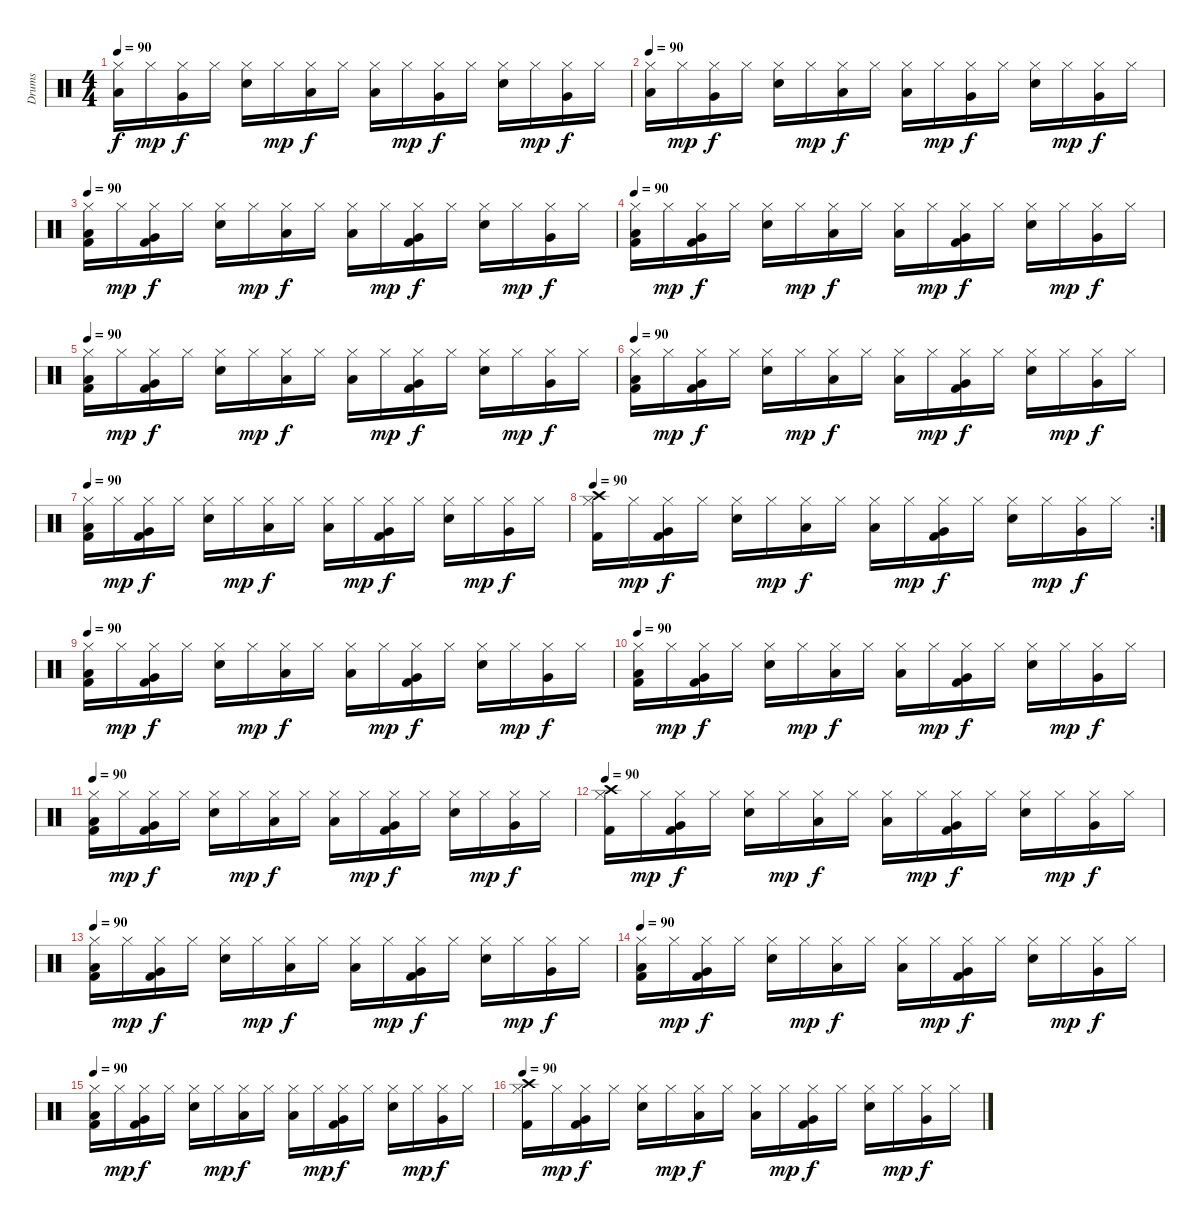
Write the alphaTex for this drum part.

\track ("Drums" "Drums") {instrument percussion}
\staff {score}
\articulation defaults
\ts (4 4)
\tempo 90
\clef neutral
\ks c
("Low Floor Tom (hit)" "Hi-Hat (closed)").16{dy f} "Hi-Hat (closed)".16{dy mp} ("Very Low Tom (hit)" "Hi-Hat (closed)").16{dy f} "Hi-Hat (closed)".16 ("Snare (hit) 2" "Hi-Hat (closed)").16 "Hi-Hat (closed)".16{dy mp} ("Low Tom (hit)" "Hi-Hat (closed)").16{dy f} "Hi-Hat (closed)".16 ("Low Tom (hit)" "Hi-Hat (closed)").16 "Hi-Hat (closed)".16{dy mp} ("Very Low Tom (hit)" "Hi-Hat (closed)").16{dy f} "Hi-Hat (closed)".16 ("Snare (hit) 2" "Hi-Hat (closed)").16 "Hi-Hat (closed)".16{dy mp} ("Very Low Tom (hit)" "Hi-Hat (closed)").16{dy f} "Hi-Hat (closed)".16 |
\tempo 90
("Low Floor Tom (hit)" "Hi-Hat (closed)").16 "Hi-Hat (closed)".16{dy mp} ("Very Low Tom (hit)" "Hi-Hat (closed)").16{dy f} "Hi-Hat (closed)".16 ("Snare (hit) 2" "Hi-Hat (closed)").16 "Hi-Hat (closed)".16{dy mp} ("Low Tom (hit)" "Hi-Hat (closed)").16{dy f} "Hi-Hat (closed)".16 ("Low Tom (hit)" "Hi-Hat (closed)").16 "Hi-Hat (closed)".16{dy mp} ("Very Low Tom (hit)" "Hi-Hat (closed)").16{dy f} "Hi-Hat (closed)".16 ("Snare (hit) 2" "Hi-Hat (closed)").16 "Hi-Hat (closed)".16{dy mp} ("Very Low Tom (hit)" "Hi-Hat (closed)").16{dy f} "Hi-Hat (closed)".16 |
\tempo 90
("Low Floor Tom (hit)" "Kick (hit) 2" "Hi-Hat (closed)").16 "Hi-Hat (closed)".16{dy mp} ("Very Low Tom (hit)" "Kick (hit) 2" "Hi-Hat (closed)").16{dy f} "Hi-Hat (closed)".16 ("Snare (hit) 2" "Hi-Hat (closed)").16 "Hi-Hat (closed)".16{dy mp} ("Low Tom (hit)" "Hi-Hat (closed)").16{dy f} "Hi-Hat (closed)".16 ("Low Tom (hit)" "Hi-Hat (closed)").16 "Hi-Hat (closed)".16{dy mp} ("Very Low Tom (hit)" "Kick (hit) 2" "Hi-Hat (closed)").16{dy f} "Hi-Hat (closed)".16 ("Snare (hit) 2" "Hi-Hat (closed)").16 "Hi-Hat (closed)".16{dy mp} ("Very Low Tom (hit)" "Hi-Hat (closed)").16{dy f} "Hi-Hat (closed)".16 |
\tempo 90
("Low Floor Tom (hit)" "Kick (hit) 2" "Hi-Hat (closed)").16 "Hi-Hat (closed)".16{dy mp} ("Very Low Tom (hit)" "Kick (hit) 2" "Hi-Hat (closed)").16{dy f} "Hi-Hat (closed)".16 ("Snare (hit) 2" "Hi-Hat (closed)").16 "Hi-Hat (closed)".16{dy mp} ("Low Tom (hit)" "Hi-Hat (closed)").16{dy f} "Hi-Hat (closed)".16 ("Low Tom (hit)" "Hi-Hat (closed)").16 "Hi-Hat (closed)".16{dy mp} ("Very Low Tom (hit)" "Kick (hit) 2" "Hi-Hat (closed)").16{dy f} "Hi-Hat (closed)".16 ("Snare (hit) 2" "Hi-Hat (closed)").16 "Hi-Hat (closed)".16{dy mp} ("Very Low Tom (hit)" "Hi-Hat (closed)").16{dy f} "Hi-Hat (closed)".16 |
\tempo 90
("Low Floor Tom (hit)" "Kick (hit) 2" "Hi-Hat (closed)").16 "Hi-Hat (closed)".16{dy mp} ("Very Low Tom (hit)" "Kick (hit) 2" "Hi-Hat (closed)").16{dy f} "Hi-Hat (closed)".16 ("Snare (hit) 2" "Hi-Hat (closed)").16 "Hi-Hat (closed)".16{dy mp} ("Low Tom (hit)" "Hi-Hat (closed)").16{dy f} "Hi-Hat (closed)".16 ("Low Tom (hit)" "Hi-Hat (closed)").16 "Hi-Hat (closed)".16{dy mp} ("Very Low Tom (hit)" "Kick (hit) 2" "Hi-Hat (closed)").16{dy f} "Hi-Hat (closed)".16 ("Snare (hit) 2" "Hi-Hat (closed)").16 "Hi-Hat (closed)".16{dy mp} ("Very Low Tom (hit)" "Hi-Hat (closed)").16{dy f} "Hi-Hat (closed)".16 |
\tempo 90
("Low Floor Tom (hit)" "Kick (hit) 2" "Hi-Hat (closed)").16 "Hi-Hat (closed)".16{dy mp} ("Very Low Tom (hit)" "Kick (hit) 2" "Hi-Hat (closed)").16{dy f} "Hi-Hat (closed)".16 ("Snare (hit) 2" "Hi-Hat (closed)").16 "Hi-Hat (closed)".16{dy mp} ("Low Tom (hit)" "Hi-Hat (closed)").16{dy f} "Hi-Hat (closed)".16 ("Low Tom (hit)" "Hi-Hat (closed)").16 "Hi-Hat (closed)".16{dy mp} ("Very Low Tom (hit)" "Kick (hit) 2" "Hi-Hat (closed)").16{dy f} "Hi-Hat (closed)".16 ("Snare (hit) 2" "Hi-Hat (closed)").16 "Hi-Hat (closed)".16{dy mp} ("Very Low Tom (hit)" "Hi-Hat (closed)").16{dy f} "Hi-Hat (closed)".16 |
\tempo 90
("Low Floor Tom (hit)" "Kick (hit) 2" "Hi-Hat (closed)").16 "Hi-Hat (closed)".16{dy mp} ("Very Low Tom (hit)" "Kick (hit) 2" "Hi-Hat (closed)").16{dy f} "Hi-Hat (closed)".16 ("Snare (hit) 2" "Hi-Hat (closed)").16 "Hi-Hat (closed)".16{dy mp} ("Low Tom (hit)" "Hi-Hat (closed)").16{dy f} "Hi-Hat (closed)".16 ("Low Tom (hit)" "Hi-Hat (closed)").16 "Hi-Hat (closed)".16{dy mp} ("Very Low Tom (hit)" "Kick (hit) 2" "Hi-Hat (closed)").16{dy f} "Hi-Hat (closed)".16 ("Snare (hit) 2" "Hi-Hat (closed)").16 "Hi-Hat (closed)".16{dy mp} ("Very Low Tom (hit)" "Hi-Hat (closed)").16{dy f} "Hi-Hat (closed)".16 |
\rc 2
\tempo 90
("Crash high (hit)" "Kick (hit) 2" "Hi-Hat (closed)").16 "Hi-Hat (closed)".16{dy mp} ("Very Low Tom (hit)" "Kick (hit) 2" "Hi-Hat (closed)").16{dy f} "Hi-Hat (closed)".16 ("Snare (hit) 2" "Hi-Hat (closed)").16 "Hi-Hat (closed)".16{dy mp} ("Low Tom (hit)" "Hi-Hat (closed)").16{dy f} "Hi-Hat (closed)".16 ("Low Tom (hit)" "Hi-Hat (closed)").16 "Hi-Hat (closed)".16{dy mp} ("Very Low Tom (hit)" "Kick (hit) 2" "Hi-Hat (closed)").16{dy f} "Hi-Hat (closed)".16 ("Snare (hit) 2" "Hi-Hat (closed)").16 "Hi-Hat (closed)".16{dy mp} ("Very Low Tom (hit)" "Hi-Hat (closed)").16{dy f} "Hi-Hat (closed)".16 |
\tempo 90
("Low Floor Tom (hit)" "Kick (hit) 2" "Hi-Hat (closed)").16 "Hi-Hat (closed)".16{dy mp} ("Very Low Tom (hit)" "Kick (hit) 2" "Hi-Hat (closed)").16{dy f} "Hi-Hat (closed)".16 ("Snare (hit) 2" "Hi-Hat (closed)").16 "Hi-Hat (closed)".16{dy mp} ("Low Tom (hit)" "Hi-Hat (closed)").16{dy f} "Hi-Hat (closed)".16 ("Low Tom (hit)" "Hi-Hat (closed)").16 "Hi-Hat (closed)".16{dy mp} ("Very Low Tom (hit)" "Kick (hit) 2" "Hi-Hat (closed)").16{dy f} "Hi-Hat (closed)".16 ("Snare (hit) 2" "Hi-Hat (closed)").16 "Hi-Hat (closed)".16{dy mp} ("Very Low Tom (hit)" "Hi-Hat (closed)").16{dy f} "Hi-Hat (closed)".16 |
\tempo 90
("Low Floor Tom (hit)" "Kick (hit) 2" "Hi-Hat (closed)").16 "Hi-Hat (closed)".16{dy mp} ("Very Low Tom (hit)" "Kick (hit) 2" "Hi-Hat (closed)").16{dy f} "Hi-Hat (closed)".16 ("Snare (hit) 2" "Hi-Hat (closed)").16 "Hi-Hat (closed)".16{dy mp} ("Low Tom (hit)" "Hi-Hat (closed)").16{dy f} "Hi-Hat (closed)".16 ("Low Tom (hit)" "Hi-Hat (closed)").16 "Hi-Hat (closed)".16{dy mp} ("Very Low Tom (hit)" "Kick (hit) 2" "Hi-Hat (closed)").16{dy f} "Hi-Hat (closed)".16 ("Snare (hit) 2" "Hi-Hat (closed)").16 "Hi-Hat (closed)".16{dy mp} ("Very Low Tom (hit)" "Hi-Hat (closed)").16{dy f} "Hi-Hat (closed)".16 |
\tempo 90
("Low Floor Tom (hit)" "Kick (hit) 2" "Hi-Hat (closed)").16 "Hi-Hat (closed)".16{dy mp} ("Very Low Tom (hit)" "Kick (hit) 2" "Hi-Hat (closed)").16{dy f} "Hi-Hat (closed)".16 ("Snare (hit) 2" "Hi-Hat (closed)").16 "Hi-Hat (closed)".16{dy mp} ("Low Tom (hit)" "Hi-Hat (closed)").16{dy f} "Hi-Hat (closed)".16 ("Low Tom (hit)" "Hi-Hat (closed)").16 "Hi-Hat (closed)".16{dy mp} ("Very Low Tom (hit)" "Kick (hit) 2" "Hi-Hat (closed)").16{dy f} "Hi-Hat (closed)".16 ("Snare (hit) 2" "Hi-Hat (closed)").16 "Hi-Hat (closed)".16{dy mp} ("Very Low Tom (hit)" "Hi-Hat (closed)").16{dy f} "Hi-Hat (closed)".16 |
\tempo 90
("Crash high (hit)" "Kick (hit) 2" "Hi-Hat (closed)").16 "Hi-Hat (closed)".16{dy mp} ("Very Low Tom (hit)" "Kick (hit) 2" "Hi-Hat (closed)").16{dy f} "Hi-Hat (closed)".16 ("Snare (hit) 2" "Hi-Hat (closed)").16 "Hi-Hat (closed)".16{dy mp} ("Low Tom (hit)" "Hi-Hat (closed)").16{dy f} "Hi-Hat (closed)".16 ("Low Tom (hit)" "Hi-Hat (closed)").16 "Hi-Hat (closed)".16{dy mp} ("Very Low Tom (hit)" "Kick (hit) 2" "Hi-Hat (closed)").16{dy f} "Hi-Hat (closed)".16 ("Snare (hit) 2" "Hi-Hat (closed)").16 "Hi-Hat (closed)".16{dy mp} ("Very Low Tom (hit)" "Hi-Hat (closed)").16{dy f} "Hi-Hat (closed)".16 |
\tempo 90
("Low Floor Tom (hit)" "Kick (hit) 2" "Hi-Hat (closed)").16 "Hi-Hat (closed)".16{dy mp} ("Very Low Tom (hit)" "Kick (hit) 2" "Hi-Hat (closed)").16{dy f} "Hi-Hat (closed)".16 ("Snare (hit) 2" "Hi-Hat (closed)").16 "Hi-Hat (closed)".16{dy mp} ("Low Tom (hit)" "Hi-Hat (closed)").16{dy f} "Hi-Hat (closed)".16 ("Low Tom (hit)" "Hi-Hat (closed)").16 "Hi-Hat (closed)".16{dy mp} ("Very Low Tom (hit)" "Kick (hit) 2" "Hi-Hat (closed)").16{dy f} "Hi-Hat (closed)".16 ("Snare (hit) 2" "Hi-Hat (closed)").16 "Hi-Hat (closed)".16{dy mp} ("Very Low Tom (hit)" "Hi-Hat (closed)").16{dy f} "Hi-Hat (closed)".16 |
\tempo 90
("Low Floor Tom (hit)" "Kick (hit) 2" "Hi-Hat (closed)").16 "Hi-Hat (closed)".16{dy mp} ("Very Low Tom (hit)" "Kick (hit) 2" "Hi-Hat (closed)").16{dy f} "Hi-Hat (closed)".16 ("Snare (hit) 2" "Hi-Hat (closed)").16 "Hi-Hat (closed)".16{dy mp} ("Low Tom (hit)" "Hi-Hat (closed)").16{dy f} "Hi-Hat (closed)".16 ("Low Tom (hit)" "Hi-Hat (closed)").16 "Hi-Hat (closed)".16{dy mp} ("Very Low Tom (hit)" "Kick (hit) 2" "Hi-Hat (closed)").16{dy f} "Hi-Hat (closed)".16 ("Snare (hit) 2" "Hi-Hat (closed)").16 "Hi-Hat (closed)".16{dy mp} ("Very Low Tom (hit)" "Hi-Hat (closed)").16{dy f} "Hi-Hat (closed)".16 |
\tempo 90
("Low Floor Tom (hit)" "Kick (hit) 2" "Hi-Hat (closed)").16 "Hi-Hat (closed)".16{dy mp} ("Very Low Tom (hit)" "Kick (hit) 2" "Hi-Hat (closed)").16{dy f} "Hi-Hat (closed)".16 ("Snare (hit) 2" "Hi-Hat (closed)").16 "Hi-Hat (closed)".16{dy mp} ("Low Tom (hit)" "Hi-Hat (closed)").16{dy f} "Hi-Hat (closed)".16 ("Low Tom (hit)" "Hi-Hat (closed)").16 "Hi-Hat (closed)".16{dy mp} ("Very Low Tom (hit)" "Kick (hit) 2" "Hi-Hat (closed)").16{dy f} "Hi-Hat (closed)".16 ("Snare (hit) 2" "Hi-Hat (closed)").16 "Hi-Hat (closed)".16{dy mp} ("Very Low Tom (hit)" "Hi-Hat (closed)").16{dy f} "Hi-Hat (closed)".16 |
\tempo 90
("Crash high (hit)" "Kick (hit) 2" "Hi-Hat (closed)").16 "Hi-Hat (closed)".16{dy mp} ("Very Low Tom (hit)" "Kick (hit) 2" "Hi-Hat (closed)").16{dy f} "Hi-Hat (closed)".16 ("Snare (hit) 2" "Hi-Hat (closed)").16 "Hi-Hat (closed)".16{dy mp} ("Low Tom (hit)" "Hi-Hat (closed)").16{dy f} "Hi-Hat (closed)".16 ("Low Tom (hit)" "Hi-Hat (closed)").16 "Hi-Hat (closed)".16{dy mp} ("Very Low Tom (hit)" "Kick (hit) 2" "Hi-Hat (closed)").16{dy f} "Hi-Hat (closed)".16 ("Snare (hit) 2" "Hi-Hat (closed)").16 "Hi-Hat (closed)".16{dy mp} ("Very Low Tom (hit)" "Hi-Hat (closed)").16{dy f} "Hi-Hat (closed)".16
